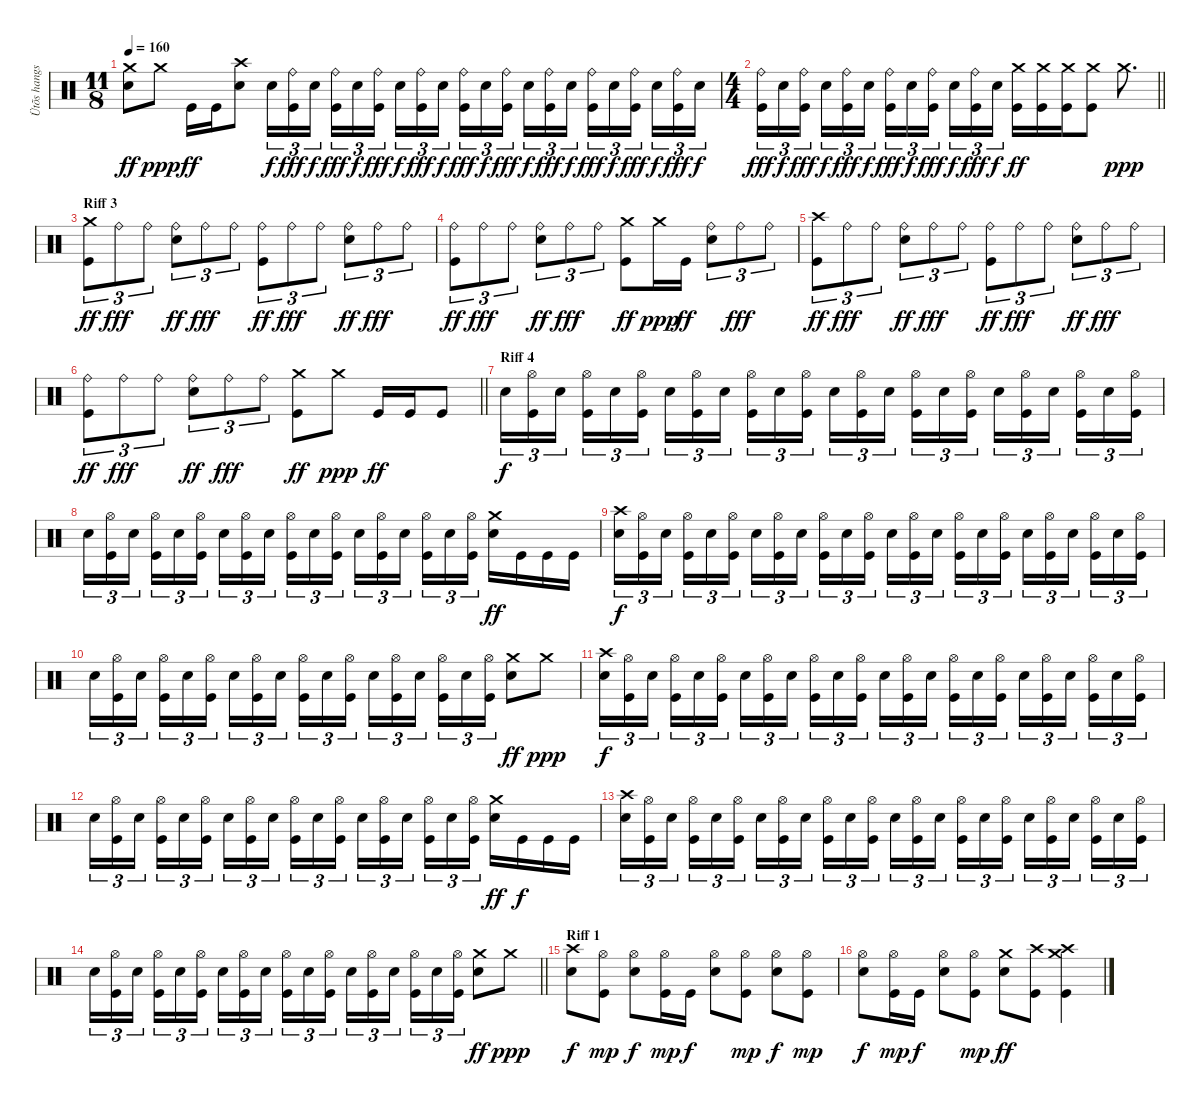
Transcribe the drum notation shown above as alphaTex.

\track ("Ütõs hangszer" "Ütõs hangs") {instrument percussion}
\staff {score}
\articulation defaults
\ts (11 8)
\tempo 160
\clef neutral
\ks c
("Crash medium (hit)" "Electric Snare (hit)").8{dy ff} "Crash medium (hit)".8{dy ppp} "Kick (hit)".16{dy ff} "Kick (hit)".16 ("Crash high (hit)" "Electric Snare (hit)").8 "Electric Snare (hit)".16{tu (3 2) dy f} ("Ride (bell)" "Kick (hit)").16{tu (3 2) dy fff} "Electric Snare (hit)".16{tu (3 2) dy f} ("Ride (bell)" "Kick (hit)").16{tu (3 2) dy fff} "Electric Snare (hit)".16{tu (3 2) dy f} ("Ride (bell)" "Kick (hit)").16{tu (3 2) dy fff} "Electric Snare (hit)".16{tu (3 2) dy f} ("Ride (bell)" "Kick (hit)").16{tu (3 2) dy fff} "Electric Snare (hit)".16{tu (3 2) dy f} ("Ride (bell)" "Kick (hit)").16{tu (3 2) dy fff} "Electric Snare (hit)".16{tu (3 2) dy f} ("Ride (bell)" "Kick (hit)").16{tu (3 2) dy fff} "Electric Snare (hit)".16{tu (3 2) dy f} ("Ride (bell)" "Kick (hit)").16{tu (3 2) dy fff} "Electric Snare (hit)".16{tu (3 2) dy f} ("Ride (bell)" "Kick (hit)").16{tu (3 2) dy fff} "Electric Snare (hit)".16{tu (3 2) dy f} ("Ride (bell)" "Kick (hit)").16{tu (3 2) dy fff} "Electric Snare (hit)".16{tu (3 2) dy f} ("Ride (bell)" "Kick (hit)").16{tu (3 2) dy fff} "Electric Snare (hit)".16{tu (3 2) dy f} |
\ts (4 4)
\barLineRight lightlight
("Ride (bell)" "Kick (hit)").16{tu (3 2) dy fff} "Electric Snare (hit)".16{tu (3 2) dy f} ("Ride (bell)" "Kick (hit)").16{tu (3 2) dy fff beam splitsecondary} "Electric Snare (hit)".16{tu (3 2) dy f} ("Ride (bell)" "Kick (hit)").16{tu (3 2) dy fff} "Electric Snare (hit)".16{tu (3 2) dy f} ("Ride (bell)" "Kick (hit)").16{tu (3 2) dy fff} "Electric Snare (hit)".16{tu (3 2) dy f} ("Ride (bell)" "Kick (hit)").16{tu (3 2) dy fff beam splitsecondary} "Electric Snare (hit)".16{tu (3 2) dy f} ("Ride (bell)" "Kick (hit)").16{tu (3 2) dy fff} "Electric Snare (hit)".16{tu (3 2) dy f} ("Crash medium (hit)" "Kick (hit)").16{dy ff} ("Crash medium (hit)" "Kick (hit)").16 ("Crash medium (hit)" "Kick (hit)").16 ("Crash medium (hit)" "Kick (hit)").8 "Crash medium (hit)".8{d dy ppp} |
\section ("" "Riff 3")
("Crash medium (hit)" "Kick (hit)").8{tu (3 2) dy ff} "Ride (bell)".8{tu (3 2) dy fff} "Ride (bell)".8{tu (3 2)} ("Ride (bell)" "Electric Snare (hit)").8{tu (3 2) dy ff} "Ride (bell)".8{tu (3 2) dy fff} "Ride (bell)".8{tu (3 2)} ("Ride (bell)" "Kick (hit)").8{tu (3 2) dy ff} "Ride (bell)".8{tu (3 2) dy fff} "Ride (bell)".8{tu (3 2)} ("Ride (bell)" "Electric Snare (hit)").8{tu (3 2) dy ff} "Ride (bell)".8{tu (3 2) dy fff} "Ride (bell)".8{tu (3 2)} |
("Ride (bell)" "Kick (hit)").8{tu (3 2) dy ff} "Ride (bell)".8{tu (3 2) dy fff} "Ride (bell)".8{tu (3 2)} ("Ride (bell)" "Electric Snare (hit)").8{tu (3 2) dy ff} "Ride (bell)".8{tu (3 2) dy fff} "Ride (bell)".8{tu (3 2)} ("Crash medium (hit)" "Kick (hit)").8{dy ff} "Crash medium (hit)".16{dy ppp} "Kick (hit)".16{dy ff} ("Ride (bell)" "Electric Snare (hit)").8{tu (3 2)} "Ride (bell)".8{tu (3 2) dy fff} "Ride (bell)".8{tu (3 2)} |
("Crash high (hit)" "Kick (hit)").8{tu (3 2) dy ff} "Ride (bell)".8{tu (3 2) dy fff} "Ride (bell)".8{tu (3 2)} ("Ride (bell)" "Electric Snare (hit)").8{tu (3 2) dy ff} "Ride (bell)".8{tu (3 2) dy fff} "Ride (bell)".8{tu (3 2)} ("Ride (bell)" "Kick (hit)").8{tu (3 2) dy ff} "Ride (bell)".8{tu (3 2) dy fff} "Ride (bell)".8{tu (3 2)} ("Ride (bell)" "Electric Snare (hit)").8{tu (3 2) dy ff} "Ride (bell)".8{tu (3 2) dy fff} "Ride (bell)".8{tu (3 2)} |
\barLineRight lightlight
("Ride (bell)" "Kick (hit)").8{tu (3 2) dy ff} "Ride (bell)".8{tu (3 2) dy fff} "Ride (bell)".8{tu (3 2)} ("Ride (bell)" "Electric Snare (hit)").8{tu (3 2) dy ff} "Ride (bell)".8{tu (3 2) dy fff} "Ride (bell)".8{tu (3 2)} ("Crash medium (hit)" "Kick (hit)").8{dy ff} "Crash medium (hit)".8{dy ppp} "Kick (hit)".16{dy ff} "Kick (hit)".16 "Kick (hit)".8 |
\section ("" "Riff 4")
"Electric Snare (hit)".16{tu (3 2) dy f} ("Hi-Hat (open)" "Kick (hit)").16{tu (3 2)} "Electric Snare (hit)".16{tu (3 2) beam splitsecondary} ("Hi-Hat (open)" "Kick (hit)").16{tu (3 2)} "Electric Snare (hit)".16{tu (3 2)} ("Hi-Hat (open)" "Kick (hit)").16{tu (3 2)} "Electric Snare (hit)".16{tu (3 2)} ("Hi-Hat (open)" "Kick (hit)").16{tu (3 2)} "Electric Snare (hit)".16{tu (3 2) beam splitsecondary} ("Hi-Hat (open)" "Kick (hit)").16{tu (3 2)} "Electric Snare (hit)".16{tu (3 2)} ("Hi-Hat (open)" "Kick (hit)").16{tu (3 2)} "Electric Snare (hit)".16{tu (3 2)} ("Hi-Hat (open)" "Kick (hit)").16{tu (3 2)} "Electric Snare (hit)".16{tu (3 2) beam splitsecondary} ("Hi-Hat (open)" "Kick (hit)").16{tu (3 2)} "Electric Snare (hit)".16{tu (3 2)} ("Hi-Hat (open)" "Kick (hit)").16{tu (3 2)} "Electric Snare (hit)".16{tu (3 2)} ("Hi-Hat (open)" "Kick (hit)").16{tu (3 2)} "Electric Snare (hit)".16{tu (3 2) beam splitsecondary} ("Hi-Hat (open)" "Kick (hit)").16{tu (3 2)} "Electric Snare (hit)".16{tu (3 2)} ("Hi-Hat (open)" "Kick (hit)").16{tu (3 2)} |
"Electric Snare (hit)".16{tu (3 2)} ("Hi-Hat (open)" "Kick (hit)").16{tu (3 2)} "Electric Snare (hit)".16{tu (3 2) beam splitsecondary} ("Hi-Hat (open)" "Kick (hit)").16{tu (3 2)} "Electric Snare (hit)".16{tu (3 2)} ("Hi-Hat (open)" "Kick (hit)").16{tu (3 2)} "Electric Snare (hit)".16{tu (3 2)} ("Hi-Hat (open)" "Kick (hit)").16{tu (3 2)} "Electric Snare (hit)".16{tu (3 2) beam splitsecondary} ("Hi-Hat (open)" "Kick (hit)").16{tu (3 2)} "Electric Snare (hit)".16{tu (3 2)} ("Hi-Hat (open)" "Kick (hit)").16{tu (3 2)} "Electric Snare (hit)".16{tu (3 2)} ("Hi-Hat (open)" "Kick (hit)").16{tu (3 2)} "Electric Snare (hit)".16{tu (3 2) beam splitsecondary} ("Hi-Hat (open)" "Kick (hit)").16{tu (3 2)} "Electric Snare (hit)".16{tu (3 2)} ("Hi-Hat (open)" "Kick (hit)").16{tu (3 2)} ("Crash medium (hit)" "Electric Snare (hit)").16{dy ff} "Kick (hit)".16 "Kick (hit)".16 "Kick (hit)".16 |
("Crash high (hit)" "Electric Snare (hit)").16{tu (3 2) dy f} ("Hi-Hat (open)" "Kick (hit)").16{tu (3 2)} "Electric Snare (hit)".16{tu (3 2) beam splitsecondary} ("Hi-Hat (open)" "Kick (hit)").16{tu (3 2)} "Electric Snare (hit)".16{tu (3 2)} ("Hi-Hat (open)" "Kick (hit)").16{tu (3 2)} "Electric Snare (hit)".16{tu (3 2)} ("Hi-Hat (open)" "Kick (hit)").16{tu (3 2)} "Electric Snare (hit)".16{tu (3 2) beam splitsecondary} ("Hi-Hat (open)" "Kick (hit)").16{tu (3 2)} "Electric Snare (hit)".16{tu (3 2)} ("Hi-Hat (open)" "Kick (hit)").16{tu (3 2)} "Electric Snare (hit)".16{tu (3 2)} ("Hi-Hat (open)" "Kick (hit)").16{tu (3 2)} "Electric Snare (hit)".16{tu (3 2) beam splitsecondary} ("Hi-Hat (open)" "Kick (hit)").16{tu (3 2)} "Electric Snare (hit)".16{tu (3 2)} ("Hi-Hat (open)" "Kick (hit)").16{tu (3 2)} "Electric Snare (hit)".16{tu (3 2)} ("Hi-Hat (open)" "Kick (hit)").16{tu (3 2)} "Electric Snare (hit)".16{tu (3 2) beam splitsecondary} ("Hi-Hat (open)" "Kick (hit)").16{tu (3 2)} "Electric Snare (hit)".16{tu (3 2)} ("Hi-Hat (open)" "Kick (hit)").16{tu (3 2)} |
"Electric Snare (hit)".16{tu (3 2)} ("Hi-Hat (open)" "Kick (hit)").16{tu (3 2)} "Electric Snare (hit)".16{tu (3 2) beam splitsecondary} ("Hi-Hat (open)" "Kick (hit)").16{tu (3 2)} "Electric Snare (hit)".16{tu (3 2)} ("Hi-Hat (open)" "Kick (hit)").16{tu (3 2)} "Electric Snare (hit)".16{tu (3 2)} ("Hi-Hat (open)" "Kick (hit)").16{tu (3 2)} "Electric Snare (hit)".16{tu (3 2) beam splitsecondary} ("Hi-Hat (open)" "Kick (hit)").16{tu (3 2)} "Electric Snare (hit)".16{tu (3 2)} ("Hi-Hat (open)" "Kick (hit)").16{tu (3 2)} "Electric Snare (hit)".16{tu (3 2)} ("Hi-Hat (open)" "Kick (hit)").16{tu (3 2)} "Electric Snare (hit)".16{tu (3 2) beam splitsecondary} ("Hi-Hat (open)" "Kick (hit)").16{tu (3 2)} "Electric Snare (hit)".16{tu (3 2)} ("Hi-Hat (open)" "Kick (hit)").16{tu (3 2)} ("Crash medium (hit)" "Electric Snare (hit)").8{dy ff} "Crash medium (hit)".8{dy ppp} |
("Crash high (hit)" "Electric Snare (hit)").16{tu (3 2) dy f} ("Hi-Hat (open)" "Kick (hit)").16{tu (3 2)} "Electric Snare (hit)".16{tu (3 2) beam splitsecondary} ("Hi-Hat (open)" "Kick (hit)").16{tu (3 2)} "Electric Snare (hit)".16{tu (3 2)} ("Hi-Hat (open)" "Kick (hit)").16{tu (3 2)} "Electric Snare (hit)".16{tu (3 2)} ("Hi-Hat (open)" "Kick (hit)").16{tu (3 2)} "Electric Snare (hit)".16{tu (3 2) beam splitsecondary} ("Hi-Hat (open)" "Kick (hit)").16{tu (3 2)} "Electric Snare (hit)".16{tu (3 2)} ("Hi-Hat (open)" "Kick (hit)").16{tu (3 2)} "Electric Snare (hit)".16{tu (3 2)} ("Hi-Hat (open)" "Kick (hit)").16{tu (3 2)} "Electric Snare (hit)".16{tu (3 2) beam splitsecondary} ("Hi-Hat (open)" "Kick (hit)").16{tu (3 2)} "Electric Snare (hit)".16{tu (3 2)} ("Hi-Hat (open)" "Kick (hit)").16{tu (3 2)} "Electric Snare (hit)".16{tu (3 2)} ("Hi-Hat (open)" "Kick (hit)").16{tu (3 2)} "Electric Snare (hit)".16{tu (3 2) beam splitsecondary} ("Hi-Hat (open)" "Kick (hit)").16{tu (3 2)} "Electric Snare (hit)".16{tu (3 2)} ("Hi-Hat (open)" "Kick (hit)").16{tu (3 2)} |
"Electric Snare (hit)".16{tu (3 2)} ("Hi-Hat (open)" "Kick (hit)").16{tu (3 2)} "Electric Snare (hit)".16{tu (3 2) beam splitsecondary} ("Hi-Hat (open)" "Kick (hit)").16{tu (3 2)} "Electric Snare (hit)".16{tu (3 2)} ("Hi-Hat (open)" "Kick (hit)").16{tu (3 2)} "Electric Snare (hit)".16{tu (3 2)} ("Hi-Hat (open)" "Kick (hit)").16{tu (3 2)} "Electric Snare (hit)".16{tu (3 2) beam splitsecondary} ("Hi-Hat (open)" "Kick (hit)").16{tu (3 2)} "Electric Snare (hit)".16{tu (3 2)} ("Hi-Hat (open)" "Kick (hit)").16{tu (3 2)} "Electric Snare (hit)".16{tu (3 2)} ("Hi-Hat (open)" "Kick (hit)").16{tu (3 2)} "Electric Snare (hit)".16{tu (3 2) beam splitsecondary} ("Hi-Hat (open)" "Kick (hit)").16{tu (3 2)} "Electric Snare (hit)".16{tu (3 2)} ("Hi-Hat (open)" "Kick (hit)").16{tu (3 2)} ("Crash medium (hit)" "Electric Snare (hit)").16{dy ff} "Kick (hit)".16{dy f} "Kick (hit)".16 "Kick (hit)".16 |
("Crash high (hit)" "Electric Snare (hit)").16{tu (3 2)} ("Hi-Hat (open)" "Kick (hit)").16{tu (3 2)} "Electric Snare (hit)".16{tu (3 2) beam splitsecondary} ("Hi-Hat (open)" "Kick (hit)").16{tu (3 2)} "Electric Snare (hit)".16{tu (3 2)} ("Hi-Hat (open)" "Kick (hit)").16{tu (3 2)} "Electric Snare (hit)".16{tu (3 2)} ("Hi-Hat (open)" "Kick (hit)").16{tu (3 2)} "Electric Snare (hit)".16{tu (3 2) beam splitsecondary} ("Hi-Hat (open)" "Kick (hit)").16{tu (3 2)} "Electric Snare (hit)".16{tu (3 2)} ("Hi-Hat (open)" "Kick (hit)").16{tu (3 2)} "Electric Snare (hit)".16{tu (3 2)} ("Hi-Hat (open)" "Kick (hit)").16{tu (3 2)} "Electric Snare (hit)".16{tu (3 2) beam splitsecondary} ("Hi-Hat (open)" "Kick (hit)").16{tu (3 2)} "Electric Snare (hit)".16{tu (3 2)} ("Hi-Hat (open)" "Kick (hit)").16{tu (3 2)} "Electric Snare (hit)".16{tu (3 2)} ("Hi-Hat (open)" "Kick (hit)").16{tu (3 2)} "Electric Snare (hit)".16{tu (3 2) beam splitsecondary} ("Hi-Hat (open)" "Kick (hit)").16{tu (3 2)} "Electric Snare (hit)".16{tu (3 2)} ("Hi-Hat (open)" "Kick (hit)").16{tu (3 2)} |
\barLineRight lightlight "Electric Snare (hit)".16{tu (3 2)}
("Hi-Hat (open)" "Kick (hit)").16{tu (3 2)} "Electric Snare (hit)".16{tu (3 2) beam splitsecondary} ("Hi-Hat (open)" "Kick (hit)").16{tu (3 2)} "Electric Snare (hit)".16{tu (3 2)} ("Hi-Hat (open)" "Kick (hit)").16{tu (3 2)} "Electric Snare (hit)".16{tu (3 2)} ("Hi-Hat (open)" "Kick (hit)").16{tu (3 2)} "Electric Snare (hit)".16{tu (3 2) beam splitsecondary} ("Hi-Hat (open)" "Kick (hit)").16{tu (3 2)} "Electric Snare (hit)".16{tu (3 2)} ("Hi-Hat (open)" "Kick (hit)").16{tu (3 2)} "Electric Snare (hit)".16{tu (3 2)} ("Hi-Hat (open)" "Kick (hit)").16{tu (3 2)} "Electric Snare (hit)".16{tu (3 2) beam splitsecondary} ("Hi-Hat (open)" "Kick (hit)").16{tu (3 2)} "Electric Snare (hit)".16{tu (3 2)} ("Hi-Hat (open)" "Kick (hit)").16{tu (3 2)} ("Crash medium (hit)" "Electric Snare (hit)").8{dy ff} "Crash medium (hit)".8{dy ppp} |
\section ("" "Riff 1")
("Crash high (hit)" "Electric Snare (hit)").8{dy f} ("Hi-Hat (open)" "Kick (hit)").8{dy mp} ("Hi-Hat (open)" "Electric Snare (hit)").8{dy f} ("Hi-Hat (open)" "Kick (hit)").16{dy mp} "Kick (hit)".16{dy f} ("Hi-Hat (open)" "Electric Snare (hit)").8 ("Hi-Hat (open)" "Kick (hit)").8{dy mp} ("Hi-Hat (open)" "Electric Snare (hit)").8{dy f} ("Hi-Hat (open)" "Kick (hit)").8{dy mp} |
("Hi-Hat (open)" "Electric Snare (hit)").8{dy f} ("Hi-Hat (open)" "Kick (hit)").16{dy mp} "Kick (hit)".16{dy f} ("Hi-Hat (open)" "Electric Snare (hit)").8 ("Hi-Hat (open)" "Kick (hit)").8{dy mp} ("Crash medium (hit)" "Electric Snare (hit)").8{dy ff} ("Crash high (hit)" "Kick (hit)").8 ("Crash medium (hit)" "Crash high (hit)" "Kick (hit)").4
